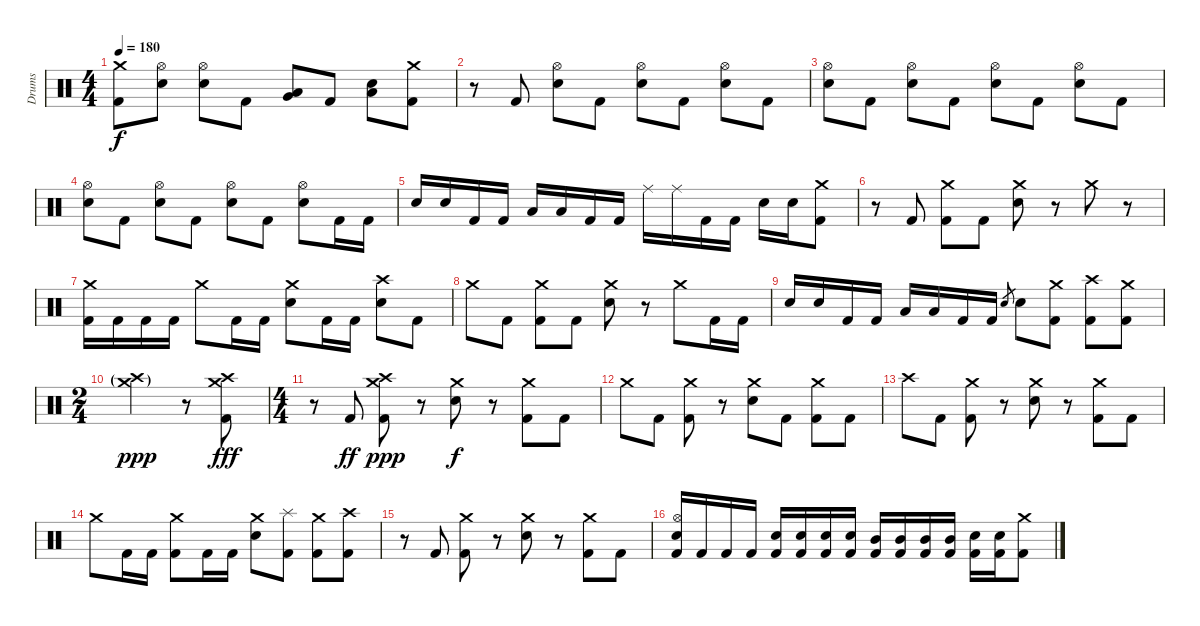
\track ("Drums" "Drums") {instrument percussion}
\staff {score}
\articulation defaults
\ts (4 4)
\tempo 180
\clef neutral
\ks c
("Crash medium (hit)" "Kick (hit) 2").8{dy f} ("Hi-Hat (open)" "Electric Snare (hit)").8 ("Hi-Hat (open)" "Electric Snare (hit)").8 "Kick (hit) 2".8 ("Very Low Tom (hit)" "Low Floor Tom (hit)").8 "Kick (hit) 2".8 ("Low Floor Tom (hit)" "Electric Snare (hit)").8 ("Crash medium (hit)" "Kick (hit) 2").8 |
r.8 "Kick (hit) 2".8 ("Hi-Hat (open)" "Electric Snare (hit)").8 "Kick (hit) 2".8 ("Hi-Hat (open)" "Electric Snare (hit)").8 "Kick (hit) 2".8 ("Hi-Hat (open)" "Electric Snare (hit)").8 "Kick (hit) 2".8 |
("Hi-Hat (open)" "Electric Snare (hit)").8 "Kick (hit) 2".8 ("Hi-Hat (open)" "Electric Snare (hit)").8 "Kick (hit) 2".8 ("Hi-Hat (open)" "Electric Snare (hit)").8 "Kick (hit) 2".8 ("Hi-Hat (open)" "Electric Snare (hit)").8 "Kick (hit) 2".8 |
("Hi-Hat (open)" "Electric Snare (hit)").8 "Kick (hit) 2".8 ("Hi-Hat (open)" "Electric Snare (hit)").8 "Kick (hit) 2".8 ("Hi-Hat (open)" "Electric Snare (hit)").8 "Kick (hit) 2".8 ("Hi-Hat (open)" "Electric Snare (hit)").8 "Kick (hit) 2".16 "Kick (hit) 2".16 |
"Electric Snare (hit)".16 "Electric Snare (hit)".16 "Kick (hit) 2".16 "Kick (hit) 2".16 "Low Tom (hit)".16 "Low Tom (hit)".16 "Kick (hit) 2".16 "Kick (hit) 2".16 "Ride (middle)".16 "Ride (middle)".16 "Kick (hit) 2".16 "Kick (hit) 2".16 "Electric Snare (hit)".16 "Electric Snare (hit)".16 ("Crash medium (hit)" "Kick (hit) 2").8 |
r.8 "Kick (hit) 2".8 ("Crash medium (hit)" "Kick (hit) 2").8 "Kick (hit) 2".8 ("Crash medium (hit)" "Electric Snare (hit)").8 r.8 "Crash medium (hit)".8 r.8 |
("Crash medium (hit)" "Kick (hit) 2").16 "Kick (hit) 2".16 "Kick (hit) 2".16 "Kick (hit) 2".16 "Crash medium (hit)".8 "Kick (hit) 2".16 "Kick (hit) 2".16 ("Crash medium (hit)" "Electric Snare (hit)").8 "Kick (hit) 2".16 "Kick (hit) 2".16 ("Crash high (hit)" "Electric Snare (hit)").8 "Kick (hit) 2".8 |
"Crash medium (hit)".8 "Kick (hit) 2".8 ("Crash medium (hit)" "Kick (hit) 2").8 "Kick (hit) 2".8 ("Crash medium (hit)" "Electric Snare (hit)").8 r.8 "Crash medium (hit)".8 "Kick (hit) 2".16 "Kick (hit) 2".16 |
"Electric Snare (hit)".16 "Electric Snare (hit)".16 "Kick (hit) 2".16 "Kick (hit) 2".16 "Low Tom (hit)".16 "Low Tom (hit)".16 "Kick (hit) 2".16 "Kick (hit) 2".16 "Electric Snare (hit)".8{gr} "Electric Snare (hit)".8 ("Crash medium (hit)" "Kick (hit) 2").8 ("Crash high (hit)" "Kick (hit) 2").8 ("Crash medium (hit)" "Kick (hit) 2").8 |
\ts (2 4)
("Crash medium (hit)"{g} "Crash high (hit)"{g}).4{dy ppp volume 0} r.8 ("Crash medium (hit)" "Crash high (hit)" "Kick (hit) 2").8{dy fff volume 16} |
\ts (4 4)
r.8 "Kick (hit) 2".8{dy ff} ("Crash medium (hit)" "Crash high (hit)" "Kick (hit) 2").8{dy ppp} r.8 ("Crash medium (hit)" "Electric Snare (hit)").8{dy f} r.8 ("Crash medium (hit)" "Kick (hit) 2").8 "Kick (hit) 2".8 |
"Crash medium (hit)".8 "Kick (hit) 2".8 ("Crash medium (hit)" "Kick (hit) 2").8 r.8 ("Crash medium (hit)" "Electric Snare (hit)").8 "Kick (hit) 2".8 ("Crash medium (hit)" "Kick (hit) 2").8 "Kick (hit) 2".8 |
"Crash high (hit)".8 "Kick (hit) 2".8 ("Crash medium (hit)" "Kick (hit) 2").8 r.8 ("Crash medium (hit)" "Electric Snare (hit)").8 r.8 ("Crash medium (hit)" "Kick (hit) 2").8 "Kick (hit) 2".8 |
"Crash medium (hit)".8 "Kick (hit) 2".16 "Kick (hit) 2".16 ("Crash medium (hit)" "Kick (hit) 2").8 "Kick (hit) 2".16 "Kick (hit) 2".16 ("Crash medium (hit)" "Electric Snare (hit)").8 ("Splash (hit)" "Kick (hit) 2").8 ("Crash medium (hit)" "Kick (hit) 2").8 ("Crash high (hit)" "Kick (hit) 2").8 |
r.8 "Kick (hit) 2".8 ("Crash medium (hit)" "Kick (hit) 2").8 r.8 ("Crash medium (hit)" "Electric Snare (hit)").8 r.8 ("Crash medium (hit)" "Kick (hit) 2").8 "Kick (hit) 2".8 |
("Hi-Hat (open)" "Electric Snare (hit)" "Kick (hit) 2").16 "Kick (hit) 2".16 "Kick (hit) 2".16 "Kick (hit) 2".16 ("Electric Snare (hit)" "Kick (hit) 2").16 ("Electric Snare (hit)" "Kick (hit) 2").16 ("Electric Snare (hit)" "Kick (hit) 2").16 ("Electric Snare (hit)" "Kick (hit) 2").16 ("Mid Tom (hit)" "Kick (hit) 2").16 ("Mid Tom (hit)" "Kick (hit) 2").16 ("Mid Tom (hit)" "Kick (hit) 2").16 ("Mid Tom (hit)" "Kick (hit) 2").16 ("Electric Snare (hit)" "Kick (hit) 2").16 ("Electric Snare (hit)" "Kick (hit) 2").16 ("Crash medium (hit)" "Kick (hit) 2").8
